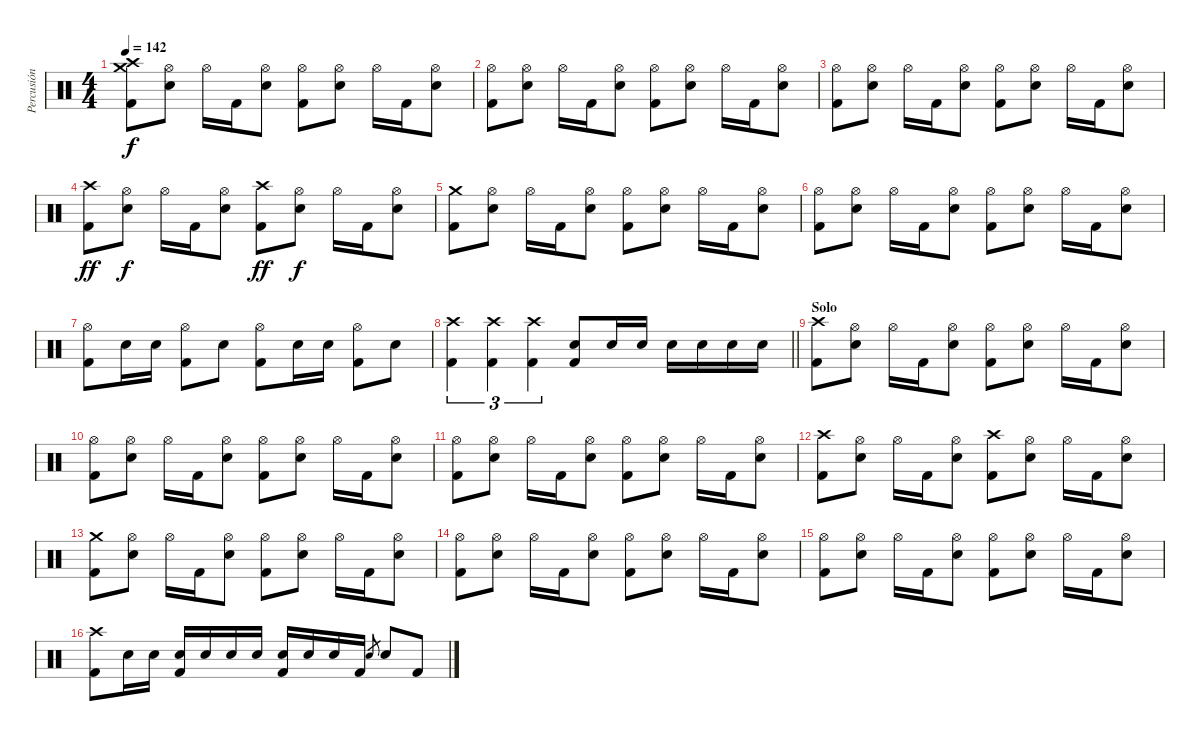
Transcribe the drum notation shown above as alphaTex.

\track ("Percusión" "Percusión") {instrument percussion}
\staff {score}
\articulation defaults
\ts (4 4)
\tempo 142
\clef neutral
\ks c
("Crash high (hit)" "Crash medium (hit)" "Kick (hit) 2").8{dy f} ("Hi-Hat (open)" "Electric Snare (hit)").8 "Hi-Hat (open)".16 "Kick (hit) 2".16 ("Hi-Hat (open)" "Electric Snare (hit)").8 ("Hi-Hat (open)" "Kick (hit) 2").8 ("Hi-Hat (open)" "Electric Snare (hit)").8 "Hi-Hat (open)".16 "Kick (hit) 2".16 ("Hi-Hat (open)" "Electric Snare (hit)").8 |
("Hi-Hat (open)" "Kick (hit) 2").8 ("Hi-Hat (open)" "Electric Snare (hit)").8 "Hi-Hat (open)".16 "Kick (hit) 2".16 ("Hi-Hat (open)" "Electric Snare (hit)").8 ("Hi-Hat (open)" "Kick (hit) 2").8 ("Hi-Hat (open)" "Electric Snare (hit)").8 "Hi-Hat (open)".16 "Kick (hit) 2".16 ("Hi-Hat (open)" "Electric Snare (hit)").8 |
("Hi-Hat (open)" "Kick (hit) 2").8 ("Hi-Hat (open)" "Electric Snare (hit)").8 "Hi-Hat (open)".16 "Kick (hit) 2".16 ("Hi-Hat (open)" "Electric Snare (hit)").8 ("Hi-Hat (open)" "Kick (hit) 2").8 ("Hi-Hat (open)" "Electric Snare (hit)").8 "Hi-Hat (open)".16 "Kick (hit) 2".16 ("Hi-Hat (open)" "Electric Snare (hit)").8 |
("Crash high (hit)" "Kick (hit) 2").8{dy ff} ("Hi-Hat (open)" "Electric Snare (hit)").8{dy f} "Hi-Hat (open)".16 "Kick (hit) 2".16 ("Hi-Hat (open)" "Electric Snare (hit)").8 ("Crash high (hit)" "Kick (hit) 2").8{dy ff} ("Hi-Hat (open)" "Electric Snare (hit)").8{dy f} "Hi-Hat (open)".16 "Kick (hit) 2".16 ("Hi-Hat (open)" "Electric Snare (hit)").8 |
("Crash medium (hit)" "Kick (hit) 2").8 ("Hi-Hat (open)" "Electric Snare (hit)").8 "Hi-Hat (open)".16 "Kick (hit) 2".16 ("Hi-Hat (open)" "Electric Snare (hit)").8 ("Hi-Hat (open)" "Kick (hit) 2").8 ("Hi-Hat (open)" "Electric Snare (hit)").8 "Hi-Hat (open)".16 "Kick (hit) 2".16 ("Hi-Hat (open)" "Electric Snare (hit)").8 |
("Hi-Hat (open)" "Kick (hit) 2").8 ("Hi-Hat (open)" "Electric Snare (hit)").8 "Hi-Hat (open)".16 "Kick (hit) 2".16 ("Hi-Hat (open)" "Electric Snare (hit)").8 ("Hi-Hat (open)" "Kick (hit) 2").8 ("Hi-Hat (open)" "Electric Snare (hit)").8 "Hi-Hat (open)".16 "Kick (hit) 2".16 ("Hi-Hat (open)" "Electric Snare (hit)").8 |
("Hi-Hat (open)" "Kick (hit) 2").8 "Electric Snare (hit)".16 "Electric Snare (hit)".16 ("Hi-Hat (open)" "Kick (hit) 2").8 "Electric Snare (hit)".8 ("Hi-Hat (open)" "Kick (hit) 2").8 "Electric Snare (hit)".16 "Electric Snare (hit)".16 ("Hi-Hat (open)" "Kick (hit) 2").8 "Electric Snare (hit)".8 |
\barLineRight lightlight
("Crash high (hit)" "Kick (hit) 2").4{tu (3 2)} ("Crash high (hit)" "Kick (hit) 2").4{tu (3 2)} ("Crash high (hit)" "Kick (hit) 2").4{tu (3 2)} ("Electric Snare (hit)" "Kick (hit) 2").8 "Electric Snare (hit)".16 "Electric Snare (hit)".16 "Electric Snare (hit)".16 "Electric Snare (hit)".16 "Electric Snare (hit)".16 "Electric Snare (hit)".16 |
\section ("" "Solo")
("Crash high (hit)" "Kick (hit) 2").8 ("Hi-Hat (open)" "Electric Snare (hit)").8 "Hi-Hat (open)".16 "Kick (hit) 2".16 ("Hi-Hat (open)" "Electric Snare (hit)").8 ("Hi-Hat (open)" "Kick (hit) 2").8 ("Hi-Hat (open)" "Electric Snare (hit)").8 "Hi-Hat (open)".16 "Kick (hit) 2".16 ("Hi-Hat (open)" "Electric Snare (hit)").8 |
("Hi-Hat (open)" "Kick (hit) 2").8 ("Hi-Hat (open)" "Electric Snare (hit)").8 "Hi-Hat (open)".16 "Kick (hit) 2".16 ("Hi-Hat (open)" "Electric Snare (hit)").8 ("Hi-Hat (open)" "Kick (hit) 2").8 ("Hi-Hat (open)" "Electric Snare (hit)").8 "Hi-Hat (open)".16 "Kick (hit) 2".16 ("Hi-Hat (open)" "Electric Snare (hit)").8 |
("Hi-Hat (open)" "Kick (hit) 2").8 ("Hi-Hat (open)" "Electric Snare (hit)").8 "Hi-Hat (open)".16 "Kick (hit) 2".16 ("Hi-Hat (open)" "Electric Snare (hit)").8 ("Hi-Hat (open)" "Kick (hit) 2").8 ("Hi-Hat (open)" "Electric Snare (hit)").8 "Hi-Hat (open)".16 "Kick (hit) 2".16 ("Hi-Hat (open)" "Electric Snare (hit)").8 |
("Crash high (hit)" "Kick (hit) 2").8 ("Hi-Hat (open)" "Electric Snare (hit)").8 "Hi-Hat (open)".16 "Kick (hit) 2".16 ("Hi-Hat (open)" "Electric Snare (hit)").8 ("Crash high (hit)" "Kick (hit) 2").8 ("Hi-Hat (open)" "Electric Snare (hit)").8 "Hi-Hat (open)".16 "Kick (hit) 2".16 ("Hi-Hat (open)" "Electric Snare (hit)").8 |
("Crash medium (hit)" "Kick (hit) 2").8 ("Hi-Hat (open)" "Electric Snare (hit)").8 "Hi-Hat (open)".16 "Kick (hit) 2".16 ("Hi-Hat (open)" "Electric Snare (hit)").8 ("Hi-Hat (open)" "Kick (hit) 2").8 ("Hi-Hat (open)" "Electric Snare (hit)").8 "Hi-Hat (open)".16 "Kick (hit) 2".16 ("Hi-Hat (open)" "Electric Snare (hit)").8 |
("Hi-Hat (open)" "Kick (hit) 2").8 ("Hi-Hat (open)" "Electric Snare (hit)").8 "Hi-Hat (open)".16 "Kick (hit) 2".16 ("Hi-Hat (open)" "Electric Snare (hit)").8 ("Hi-Hat (open)" "Kick (hit) 2").8 ("Hi-Hat (open)" "Electric Snare (hit)").8 "Hi-Hat (open)".16 "Kick (hit) 2".16 ("Hi-Hat (open)" "Electric Snare (hit)").8 |
("Hi-Hat (open)" "Kick (hit) 2").8 ("Hi-Hat (open)" "Electric Snare (hit)").8 "Hi-Hat (open)".16 "Kick (hit) 2".16 ("Hi-Hat (open)" "Electric Snare (hit)").8 ("Hi-Hat (open)" "Kick (hit) 2").8 ("Hi-Hat (open)" "Electric Snare (hit)").8 "Hi-Hat (open)".16 "Kick (hit) 2".16 ("Hi-Hat (open)" "Electric Snare (hit)").8 |
("Crash high (hit)" "Kick (hit) 2").8 "Electric Snare (hit)".16 "Electric Snare (hit)".16 ("Electric Snare (hit)" "Kick (hit) 2").16 "Electric Snare (hit)".16 "Electric Snare (hit)".16 "Electric Snare (hit)".16 ("Electric Snare (hit)" "Kick (hit) 2").16 "Electric Snare (hit)".16 "Electric Snare (hit)".16 "Kick (hit) 2".16 "Electric Snare (hit)".8{gr} "Electric Snare (hit)".8 "Kick (hit) 2".8
